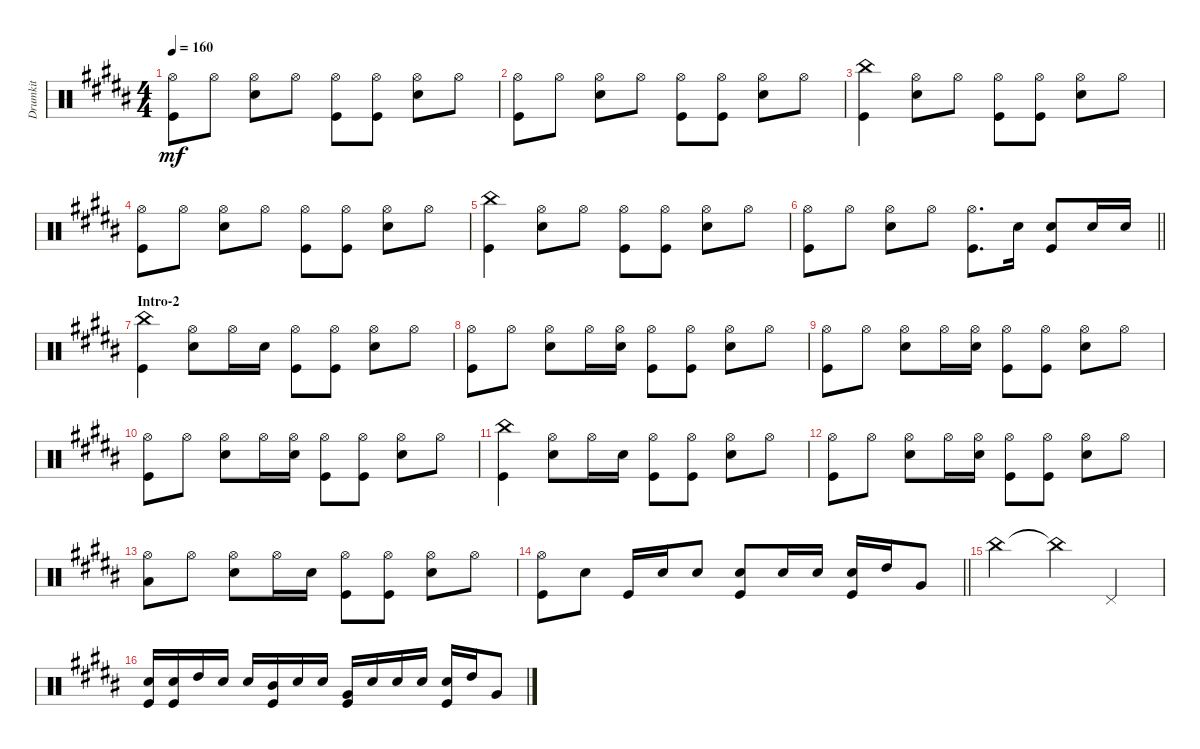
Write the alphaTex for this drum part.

\track ("Drumkit" "Drumkit") {instrument percussion}
\staff {score}
\articulation defaults
\ts (4 4)
\tempo 160
\clef neutral
\ks b
("Hi-Hat (open)" "Kick (hit)").8{dy mf} "Hi-Hat (open)".8 ("Hi-Hat (open)" "Snare (hit) 2").8 "Hi-Hat (open)".8 ("Hi-Hat (open)" "Kick (hit)").8 ("Kick (hit)" "Hi-Hat (open)").8 ("Hi-Hat (open)" "Snare (hit) 2").8 "Hi-Hat (open)".8 |
("Hi-Hat (open)" "Kick (hit)").8 "Hi-Hat (open)".8 ("Hi-Hat (open)" "Snare (hit) 2").8 "Hi-Hat (open)".8 ("Hi-Hat (open)" "Kick (hit)").8 ("Kick (hit)" "Hi-Hat (open)").8 ("Hi-Hat (open)" "Snare (hit) 2").8 "Hi-Hat (open)".8 |
("Kick (hit)" "China (hit)").4 ("Hi-Hat (open)" "Snare (hit) 2").8 "Hi-Hat (open)".8 ("Hi-Hat (open)" "Kick (hit)").8 ("Kick (hit)" "Hi-Hat (open)").8 ("Hi-Hat (open)" "Snare (hit) 2").8 "Hi-Hat (open)".8 |
("Hi-Hat (open)" "Kick (hit)").8 "Hi-Hat (open)".8 ("Hi-Hat (open)" "Snare (hit) 2").8 "Hi-Hat (open)".8 ("Hi-Hat (open)" "Kick (hit)").8 ("Hi-Hat (open)" "Kick (hit)").8 ("Snare (hit) 2" "Hi-Hat (open)").8 "Hi-Hat (open)".8 |
("China (hit)" "Kick (hit)").4 ("Snare (hit) 2" "Hi-Hat (open)").8 "Hi-Hat (open)".8 ("Hi-Hat (open)" "Kick (hit)").8 ("Hi-Hat (open)" "Kick (hit)").8 ("Hi-Hat (open)" "Snare (hit) 2").8 "Hi-Hat (open)".8 |
\barLineRight lightlight
("Kick (hit)" "Hi-Hat (open)").8 "Hi-Hat (open)".8 ("Hi-Hat (open)" "Snare (hit) 2").8 "Hi-Hat (open)".8 ("Hi-Hat (open)" "Kick (hit)").8{d} "Snare (hit) 2".16 ("Snare (hit) 2" "Kick (hit)").8 "Snare (hit) 2".16 "Snare (hit) 2".16 |
\section ("" "Intro-2")
("China (hit)" "Kick (hit)").4 ("Hi-Hat (open)" "Snare (hit) 2").8 "Hi-Hat (open)".16 "Snare (hit) 2".16 ("Hi-Hat (open)" "Kick (hit)").8 ("Hi-Hat (open)" "Kick (hit)").8 ("Hi-Hat (open)" "Snare (hit) 2").8 "Hi-Hat (open)".8 |
("Hi-Hat (open)" "Kick (hit)").8 "Hi-Hat (open)".8 ("Hi-Hat (open)" "Snare (hit) 2").8 "Hi-Hat (open)".16 ("Hi-Hat (open)" "Snare (hit) 2").16 ("Hi-Hat (open)" "Kick (hit)").8 ("Hi-Hat (open)" "Kick (hit)").8 ("Hi-Hat (open)" "Snare (hit) 2").8 "Hi-Hat (open)".8 |
("Hi-Hat (open)" "Kick (hit)").8 "Hi-Hat (open)".8 ("Hi-Hat (open)" "Snare (hit) 2").8 "Hi-Hat (open)".16 ("Hi-Hat (open)" "Snare (hit) 2").16 ("Hi-Hat (open)" "Kick (hit)").8 ("Hi-Hat (open)" "Kick (hit)").8 ("Hi-Hat (open)" "Snare (hit) 2").8 "Hi-Hat (open)".8 |
("Hi-Hat (open)" "Kick (hit)").8 "Hi-Hat (open)".8 ("Hi-Hat (open)" "Snare (hit) 2").8 "Hi-Hat (open)".16 ("Hi-Hat (open)" "Snare (hit) 2").16 ("Hi-Hat (open)" "Kick (hit)").8 ("Hi-Hat (open)" "Kick (hit)").8 ("Hi-Hat (open)" "Snare (hit) 2").8 "Hi-Hat (open)".8 |
("China (hit)" "Kick (hit)").4 ("Hi-Hat (open)" "Snare (hit) 2").8 "Hi-Hat (open)".16 "Snare (hit) 2".16 ("Hi-Hat (open)" "Kick (hit)").8 ("Hi-Hat (open)" "Kick (hit)").8 ("Hi-Hat (open)" "Snare (hit) 2").8 "Hi-Hat (open)".8 |
("Hi-Hat (open)" "Kick (hit)").8 "Hi-Hat (open)".8 ("Hi-Hat (open)" "Snare (hit) 2").8 "Hi-Hat (open)".16 ("Hi-Hat (open)" "Snare (hit) 2").16 ("Hi-Hat (open)" "Kick (hit)").8 ("Hi-Hat (open)" "Kick (hit)").8 ("Hi-Hat (open)" "Snare (hit) 2").8 "Hi-Hat (open)".8 |
("Hi-Hat (open)" "Low Floor Tom (hit)").8 "Hi-Hat (open)".8 ("Snare (hit) 2" "Hi-Hat (open)").8 "Hi-Hat (open)".16 "Snare (hit) 2".16 ("Hi-Hat (open)" "Kick (hit)").8 ("Hi-Hat (open)" "Kick (hit)").8 ("Snare (hit) 2" "Hi-Hat (open)").8 "Hi-Hat (open)".8 |
\barLineRight lightlight
("Hi-Hat (open)" "Kick (hit)").8 "Snare (hit) 2".8 "Kick (hit)".16 "Snare (hit) 2".16 "Snare (hit) 2".8 ("Snare (hit) 2" "Kick (hit)").8 "Snare (hit) 2".16 "Snare (hit) 2".16 ("Snare (hit) 2" "Kick (hit)").16 "High Tom (hit)".16 "Very Low Tom (hit)".8 |
\section ("" "")
"China (hit)".2 "China (hit)"{t}.4 "Pedal Hi-Hat (hit)".4 |
("Snare (hit) 2" "Kick (hit)").16 ("Snare (hit) 2" "Kick (hit)").16 "High Tom (hit)".16 "Snare (hit) 2".16 "Snare (hit) 2".16 ("Mid Tom (hit)" "Kick (hit)").16 "Snare (hit) 2".16 "Snare (hit) 2".16 ("Kick (hit)" "Very Low Tom (hit)").16 "Snare (hit) 2".16 "Snare (hit) 2".16 "Snare (hit) 2".16 ("Snare (hit) 2" "Kick (hit)").16 "High Tom (hit)".16 "Very Low Tom (hit)".8
